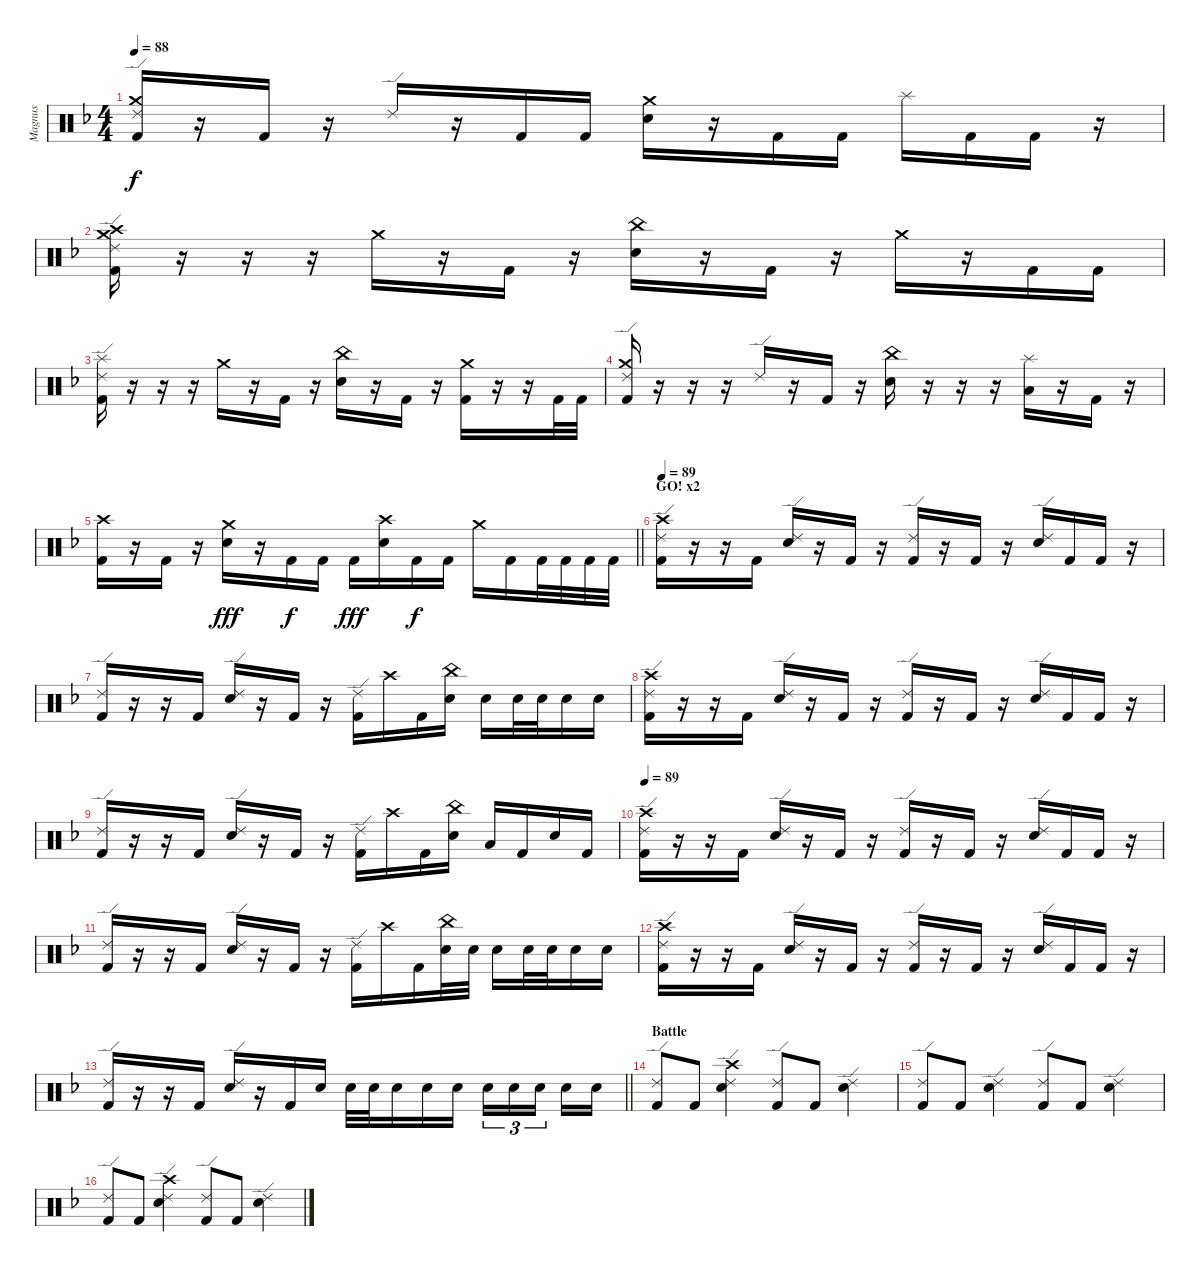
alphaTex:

\track ("Magnus" "Magnus") {instrument percussion}
\staff {score}
\articulation defaults
\ts (4 4)
\tempo 88
\clef neutral
\ks dminor
("Ride (edge) 2" "Crash medium (hit)" "Kick (hit) 2").16{dy f} r.16 "Kick (hit) 2".16 r.16 "Ride (edge) 2".16 r.16 "Kick (hit) 2".16 "Kick (hit) 2".16 ("Crash medium (hit)" "Snare (hit) 2").16 r.16 "Kick (hit) 2".16 "Kick (hit) 2".16 "Splash (hit)".16 "Kick (hit) 2".16 "Kick (hit) 2".16 r.16 |
("Crash medium (hit)" "Crash high (hit)" "Ride (edge) 2" "Kick (hit) 2").16 r.16 r.16 r.16 "Crash medium (hit)".16 r.16 "Kick (hit) 2".16 r.16 ("China (hit)" "Snare (hit) 2").16 r.16 "Kick (hit) 2".16 r.16 "Crash medium (hit)".16 r.16 "Kick (hit) 2".16 "Kick (hit) 2".16 |
("Splash (hit)" "Ride (edge) 2" "Kick (hit) 2").16 r.16 r.16 r.16 "Crash medium (hit)".16 r.16 "Kick (hit) 2".16 r.16 ("China (hit)" "Snare (hit) 2").16 r.16 "Kick (hit) 2".16 r.16 ("Crash medium (hit)" "Kick (hit) 2").16 r.16 r.16 "Kick (hit) 2".32 "Kick (hit) 2".32 |
("Crash medium (hit)" "Ride (edge) 2" "Kick (hit) 2").16 r.16 r.16 r.16 "Ride (edge) 2".16 r.16 "Kick (hit) 2".16 r.16 ("China (hit)" "Snare (hit) 2").16 r.16 r.16 r.16 ("Splash (hit)" "Low Tom (hit)").16 r.16 "Kick (hit) 2".16 r.16 |
\barLineRight lightlight
("Crash high (hit)" "Kick (hit) 2").16 r.16 "Kick (hit) 2".16 r.16 ("Crash medium (hit)" "Snare (hit) 2").16{dy fff} r.16 "Kick (hit) 2".16{dy f} "Kick (hit) 2".16 "Kick (hit) 2".16{dy fff} ("Crash high (hit)" "Snare (hit) 2").16 "Kick (hit) 2".16{dy f} "Kick (hit) 2".16 "Crash medium (hit)".16 "Kick (hit) 2".16 "Kick (hit) 2".32 "Kick (hit) 2".32 "Kick (hit) 2".32 "Kick (hit) 2".32 |
\section ("" "GO! x2")
\tempo 89
("Ride (edge) 2" "Crash high (hit)" "Kick (hit) 2").16 r.16 r.16 "Kick (hit) 2".16 ("Ride (edge) 2" "Snare (hit) 2").16 r.16 "Kick (hit) 2".16 r.16 ("Ride (edge) 2" "Kick (hit) 2").16 r.16 "Kick (hit) 2".16 r.16 ("Ride (edge) 2" "Snare (hit) 2").16 "Kick (hit) 2".16 "Kick (hit) 2".16 r.16 |
("Ride (edge) 2" "Kick (hit) 2").16 r.16 r.16 "Kick (hit) 2".16 ("Ride (edge) 2" "Snare (hit) 2").16 r.16 "Kick (hit) 2".16 r.16 ("Ride (edge) 2" "Kick (hit) 2").16 "Crash high (hit)".16 "Kick (hit) 2".16 ("China (hit)" "Snare (hit) 2").16 "Snare (hit) 2".16 "Snare (hit) 2".32 "Snare (hit) 2".32 "Snare (hit) 2".16 "Snare (hit) 2".16 |
("Ride (edge) 2" "Crash high (hit)" "Kick (hit) 2").16 r.16 r.16 "Kick (hit) 2".16 ("Ride (edge) 2" "Snare (hit) 2").16 r.16 "Kick (hit) 2".16 r.16 ("Ride (edge) 2" "Kick (hit) 2").16 r.16 "Kick (hit) 2".16 r.16 ("Ride (edge) 2" "Snare (hit) 2").16 "Kick (hit) 2".16 "Kick (hit) 2".16 r.16 |
("Ride (edge) 2" "Kick (hit) 2").16 r.16 r.16 "Kick (hit) 2".16 ("Ride (edge) 2" "Snare (hit) 2").16 r.16 "Kick (hit) 2".16 r.16 ("Ride (edge) 2" "Kick (hit) 2").16 "Crash high (hit)".16 "Kick (hit) 2".16 ("China (hit)" "Snare (hit) 2").16 "Low Tom (hit)".16 "Kick (hit) 2".16 "Snare (hit) 2".16 "Kick (hit) 2".16 |
\tempo 89
("Ride (edge) 2" "Crash high (hit)" "Kick (hit) 2").16 r.16 r.16 "Kick (hit) 2".16 ("Ride (edge) 2" "Snare (hit) 2").16 r.16 "Kick (hit) 2".16 r.16 ("Ride (edge) 2" "Kick (hit) 2").16 r.16 "Kick (hit) 2".16 r.16 ("Ride (edge) 2" "Snare (hit) 2").16 "Kick (hit) 2".16 "Kick (hit) 2".16 r.16 |
("Ride (edge) 2" "Kick (hit) 2").16 r.16 r.16 "Kick (hit) 2".16 ("Ride (edge) 2" "Snare (hit) 2").16 r.16 "Kick (hit) 2".16 r.16 ("Ride (edge) 2" "Kick (hit) 2").16 "Crash high (hit)".16 "Kick (hit) 2".16 ("China (hit)" "Snare (hit) 2").32 "Snare (hit) 2".32 "Snare (hit) 2".16 "Snare (hit) 2".32 "Snare (hit) 2".32 "Snare (hit) 2".16 "Snare (hit) 2".16 |
("Ride (edge) 2" "Crash high (hit)" "Kick (hit) 2").16 r.16 r.16 "Kick (hit) 2".16 ("Ride (edge) 2" "Snare (hit) 2").16 r.16 "Kick (hit) 2".16 r.16 ("Ride (edge) 2" "Kick (hit) 2").16 r.16 "Kick (hit) 2".16 r.16 ("Ride (edge) 2" "Snare (hit) 2").16 "Kick (hit) 2".16 "Kick (hit) 2".16 r.16 |
\barLineRight lightlight
("Ride (edge) 2" "Kick (hit) 2").16 r.16 r.16 "Kick (hit) 2".16 ("Ride (edge) 2" "Snare (hit) 2").16 r.16 "Kick (hit) 2".16 "Snare (hit) 2".16 "Snare (hit) 2".32 "Snare (hit) 2".32 "Snare (hit) 2".16 "Snare (hit) 2".16 "Snare (hit) 2".16 "Snare (hit) 2".16{tu (3 2)} "Snare (hit) 2".16{tu (3 2)} "Snare (hit) 2".16{tu (3 2) beam splitsecondary} "Snare (hit) 2".16 "Snare (hit) 2".16 |
\section ("" "Battle")
("Ride (edge) 2" "Kick (hit) 2").8 "Kick (hit) 2".8 ("Crash high (hit)" "Ride (edge) 2" "Snare (hit) 2").4 ("Ride (edge) 2" "Kick (hit) 2").8 "Kick (hit) 2".8 ("Ride (edge) 2" "Snare (hit) 2").4 |
("Ride (edge) 2" "Kick (hit) 2").8 "Kick (hit) 2".8 ("Ride (edge) 2" "Snare (hit) 2").4 ("Ride (edge) 2" "Kick (hit) 2").8 "Kick (hit) 2".8 ("Ride (edge) 2" "Snare (hit) 2").4 |
("Ride (edge) 2" "Kick (hit) 2").8 "Kick (hit) 2".8 ("Crash high (hit)" "Ride (edge) 2" "Snare (hit) 2").4 ("Ride (edge) 2" "Kick (hit) 2").8 "Kick (hit) 2".8 ("Ride (edge) 2" "Snare (hit) 2").4
